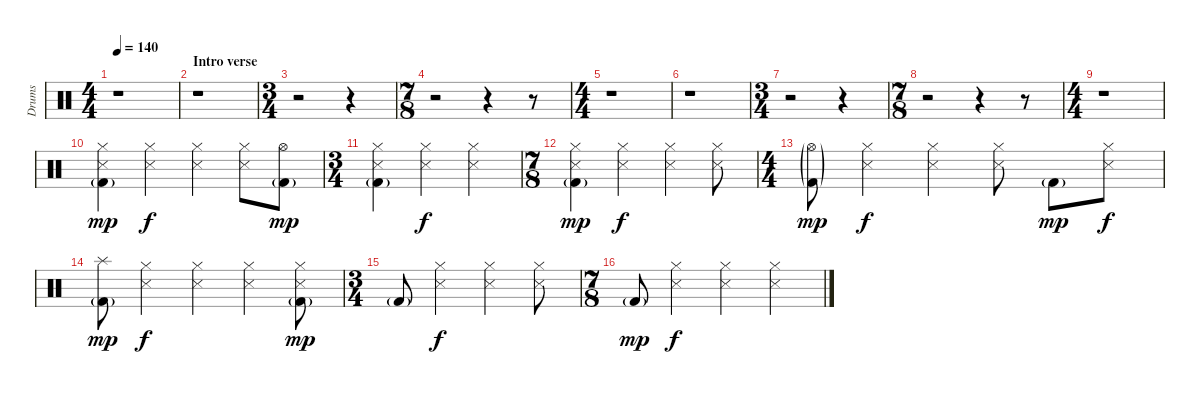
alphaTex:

\track ("Drums" "Drums") {instrument percussion}
\staff {score}
\articulation defaults
\ts (4 4)
\tempo 140
\clef neutral
\ks c
r.1{dy mp} |
\section ("" "Intro verse")
r.1 |
\ts (3 4)
r.2 r.4 |
\ts (7 8)
r.2 r.4 r.8 |
\ts (4 4)
r.1 |
r.1 |
\ts (3 4)
r.2 r.4 |
\ts (7 8)
r.2 r.4 r.8 |
\ts (4 4)
r.1 |
("Hi-Hat (closed)" "Snare (side stick) 3" "Kick (hit) 2"{g}).4 ("Hi-Hat (closed)" "Snare (side stick) 3").4{dy f} ("Hi-Hat (closed)" "Snare (side stick) 3").4 ("Hi-Hat (closed)" "Snare (side stick) 3").8 ("Hi-Hat (open)" "Kick (hit) 2"{g}).8{dy mp} |
\ts (3 4)
("Hi-Hat (closed)" "Snare (side stick) 3" "Kick (hit) 2"{g}).4 ("Hi-Hat (closed)" "Snare (side stick) 3").4{dy f} ("Hi-Hat (closed)" "Snare (side stick) 3").4 |
\ts (7 8)
("Hi-Hat (closed)" "Snare (side stick) 3" "Kick (hit) 2"{g}).4{dy mp} ("Hi-Hat (closed)" "Snare (side stick) 3").4{dy f} ("Hi-Hat (closed)" "Snare (side stick) 3").4 ("Hi-Hat (closed)" "Snare (side stick) 3").8 |
\ts (4 4)
("Hi-Hat (open)"{g} "Kick (hit) 2"{g}).8{dy mp} ("Hi-Hat (closed)" "Snare (side stick) 3").4{dy f} ("Hi-Hat (closed)" "Snare (side stick) 3").4 ("Hi-Hat (closed)" "Snare (side stick) 3").8 "Kick (hit) 2"{g}.8{dy mp} ("Hi-Hat (closed)" "Snare (side stick) 3").8{dy f} |
("Splash (hit)" "Kick (hit) 2"{g}).8{dy mp} ("Hi-Hat (closed)" "Snare (side stick) 3").4{dy f} ("Hi-Hat (closed)" "Snare (side stick) 3").4 ("Hi-Hat (closed)" "Snare (side stick) 3").4 ("Hi-Hat (closed)" "Snare (side stick) 3" "Kick (hit) 2"{g}).8{dy mp} |
\ts (3 4)
"Kick (hit) 2"{g}.8 ("Hi-Hat (closed)" "Snare (side stick) 3").4{dy f} ("Hi-Hat (closed)" "Snare (side stick) 3").4 ("Hi-Hat (closed)" "Snare (side stick) 3").8 |
\ts (7 8)
"Kick (hit) 2"{g}.8{dy mp} ("Hi-Hat (closed)" "Snare (side stick) 3").4{dy f} ("Hi-Hat (closed)" "Snare (side stick) 3").4 ("Hi-Hat (closed)" "Snare (side stick) 3").4
